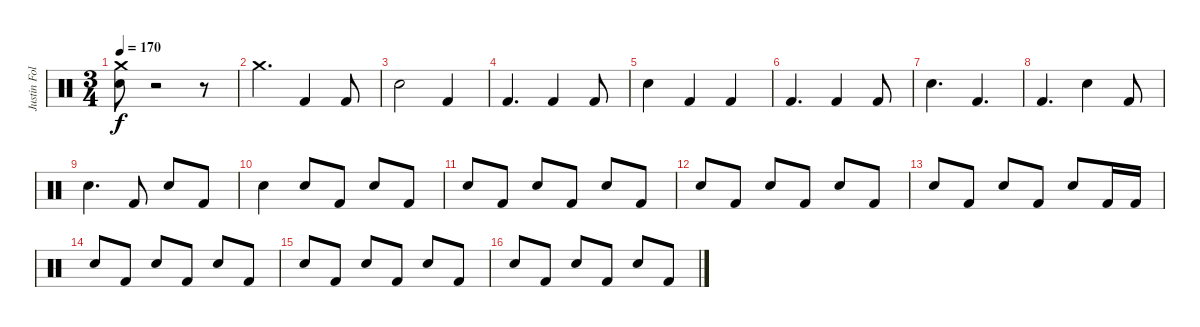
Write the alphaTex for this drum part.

\track ("Justin Foley" "Justin Fol") {instrument percussion}
\staff {score}
\articulation defaults
\ts (3 4)
\tempo 170
\clef neutral
\ks c
("Crash medium (hit)" "Snare (hit) 2").8{dy f} r.2 r.8 |
"Crash medium (hit)".4{d} "Kick (hit) 2".4 "Kick (hit) 2".8 |
"Snare (hit) 2".2 "Kick (hit) 2".4 |
"Kick (hit) 2".4{d} "Kick (hit) 2".4 "Kick (hit) 2".8 |
"Snare (hit) 2".4 "Kick (hit) 2".4 "Kick (hit) 2".4 |
"Kick (hit) 2".4{d} "Kick (hit) 2".4 "Kick (hit) 2".8 |
"Snare (hit) 2".4{d} "Kick (hit) 2".4{d} |
"Kick (hit) 2".4{d} "Snare (hit) 2".4 "Kick (hit) 2".8 |
"Snare (hit) 2".4{d} "Kick (hit) 2".8 "Snare (hit) 2".8 "Kick (hit) 2".8 |
"Snare (hit) 2".4 "Snare (hit) 2".8 "Kick (hit) 2".8 "Snare (hit) 2".8 "Kick (hit) 2".8 |
"Snare (hit) 2".8 "Kick (hit) 2".8 "Snare (hit) 2".8 "Kick (hit) 2".8 "Snare (hit) 2".8 "Kick (hit) 2".8 |
"Snare (hit) 2".8 "Kick (hit) 2".8 "Snare (hit) 2".8 "Kick (hit) 2".8 "Snare (hit) 2".8 "Kick (hit) 2".8 |
"Snare (hit) 2".8 "Kick (hit) 2".8 "Snare (hit) 2".8 "Kick (hit) 2".8 "Snare (hit) 2".8 "Kick (hit) 2".16 "Kick (hit) 2".16 |
"Snare (hit) 2".8 "Kick (hit) 2".8 "Snare (hit) 2".8 "Kick (hit) 2".8 "Snare (hit) 2".8 "Kick (hit) 2".8 |
"Snare (hit) 2".8 "Kick (hit) 2".8 "Snare (hit) 2".8 "Kick (hit) 2".8 "Snare (hit) 2".8 "Kick (hit) 2".8 |
"Snare (hit) 2".8 "Kick (hit) 2".8 "Snare (hit) 2".8 "Kick (hit) 2".8 "Snare (hit) 2".8 "Kick (hit) 2".8
